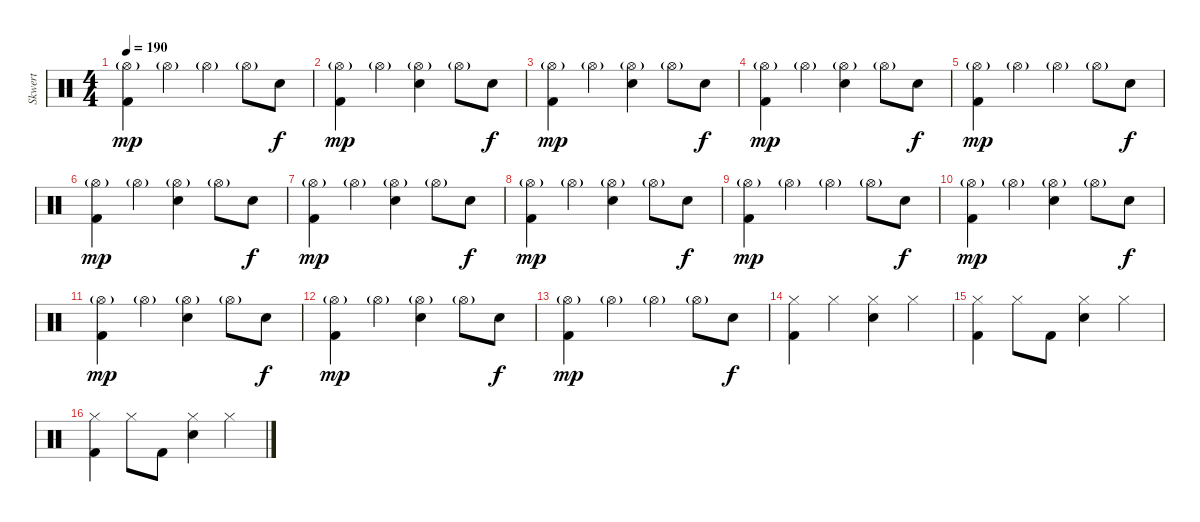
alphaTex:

\track ("Skwert" "Skwert") {instrument percussion}
\staff {score}
\articulation defaults
\ts (4 4)
\tempo 190
\clef neutral
\ks c
("Hi-Hat (open)"{g} "Kick (hit) 2").4{dy mp} "Hi-Hat (open)"{g}.4 "Hi-Hat (open)"{g}.4 "Hi-Hat (open)"{g}.8 "Electric Snare (hit)".8{dy f} |
("Hi-Hat (open)"{g} "Kick (hit) 2").4{dy mp} "Hi-Hat (open)"{g}.4 ("Hi-Hat (open)"{g} "Electric Snare (hit)").4 "Hi-Hat (open)"{g}.8 "Electric Snare (hit)".8{dy f} |
("Hi-Hat (open)"{g} "Kick (hit) 2").4{dy mp} "Hi-Hat (open)"{g}.4 ("Hi-Hat (open)"{g} "Electric Snare (hit)").4 "Hi-Hat (open)"{g}.8 "Electric Snare (hit)".8{dy f} |
("Hi-Hat (open)"{g} "Kick (hit) 2").4{dy mp} "Hi-Hat (open)"{g}.4 ("Hi-Hat (open)"{g} "Electric Snare (hit)").4 "Hi-Hat (open)"{g}.8 "Electric Snare (hit)".8{dy f} |
("Hi-Hat (open)"{g} "Kick (hit) 2").4{dy mp} "Hi-Hat (open)"{g}.4 "Hi-Hat (open)"{g}.4 "Hi-Hat (open)"{g}.8 "Electric Snare (hit)".8{dy f} |
("Hi-Hat (open)"{g} "Kick (hit) 2").4{dy mp} "Hi-Hat (open)"{g}.4 ("Hi-Hat (open)"{g} "Electric Snare (hit)").4 "Hi-Hat (open)"{g}.8 "Electric Snare (hit)".8{dy f} |
("Hi-Hat (open)"{g} "Kick (hit) 2").4{dy mp} "Hi-Hat (open)"{g}.4 ("Hi-Hat (open)"{g} "Electric Snare (hit)").4 "Hi-Hat (open)"{g}.8 "Electric Snare (hit)".8{dy f} |
("Hi-Hat (open)"{g} "Kick (hit) 2").4{dy mp} "Hi-Hat (open)"{g}.4 ("Hi-Hat (open)"{g} "Electric Snare (hit)").4 "Hi-Hat (open)"{g}.8 "Electric Snare (hit)".8{dy f} |
("Hi-Hat (open)"{g} "Kick (hit) 2").4{dy mp} "Hi-Hat (open)"{g}.4 "Hi-Hat (open)"{g}.4 "Hi-Hat (open)"{g}.8 "Electric Snare (hit)".8{dy f} |
("Hi-Hat (open)"{g} "Kick (hit) 2").4{dy mp} "Hi-Hat (open)"{g}.4 ("Hi-Hat (open)"{g} "Electric Snare (hit)").4 "Hi-Hat (open)"{g}.8 "Electric Snare (hit)".8{dy f} |
("Hi-Hat (open)"{g} "Kick (hit) 2").4{dy mp} "Hi-Hat (open)"{g}.4 ("Hi-Hat (open)"{g} "Electric Snare (hit)").4 "Hi-Hat (open)"{g}.8 "Electric Snare (hit)".8{dy f} |
("Hi-Hat (open)"{g} "Kick (hit) 2").4{dy mp} "Hi-Hat (open)"{g}.4 ("Hi-Hat (open)"{g} "Electric Snare (hit)").4 "Hi-Hat (open)"{g}.8 "Electric Snare (hit)".8{dy f} |
("Hi-Hat (open)"{g} "Kick (hit) 2").4{dy mp} "Hi-Hat (open)"{g}.4 "Hi-Hat (open)"{g}.4 "Hi-Hat (open)"{g}.8 "Electric Snare (hit)".8{dy f} |
("Hi-Hat (closed)" "Kick (hit) 2").4 "Hi-Hat (closed)".4 ("Hi-Hat (closed)" "Electric Snare (hit)").4 "Hi-Hat (closed)".4 |
("Hi-Hat (closed)" "Kick (hit) 2").4 "Hi-Hat (closed)".8 "Kick (hit) 2".8 ("Hi-Hat (closed)" "Electric Snare (hit)").4 "Hi-Hat (closed)".4 |
("Hi-Hat (closed)" "Kick (hit) 2").4 "Hi-Hat (closed)".8 "Kick (hit) 2".8 ("Hi-Hat (closed)" "Electric Snare (hit)").4 "Hi-Hat (closed)".4
